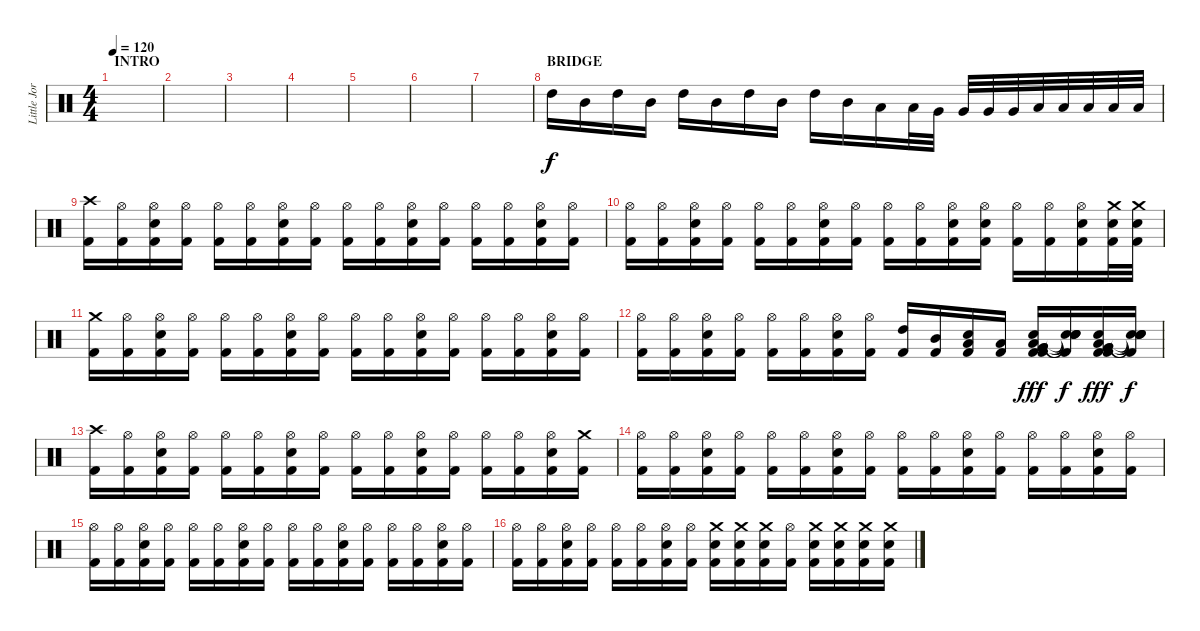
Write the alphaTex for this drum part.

\track ("Little Jordison" "Little Jor") {instrument percussion}
\staff {score}
\articulation defaults
\ts (4 4)
\section ("" "INTRO")
\tempo 120
\clef neutral
\ks c
|
|
|
|
|
|
|
\section ("" "BRIDGE")
"High Tom (hit)".16 "Mid Tom (hit)".16 "High Tom (hit)".16 "Mid Tom (hit)".16 "High Tom (hit)".16 "Mid Tom (hit)".16 "High Tom (hit)".16 "Mid Tom (hit)".16 "High Tom (hit)".16 "Mid Tom (hit)".16 "Low Tom (hit)".16 "Low Tom (hit)".32 "Very Low Tom (hit)".32 "Very Low Tom (hit)".32 "Very Low Tom (hit)".32 "Very Low Tom (hit)".32 "Low Floor Tom (hit)".32 "Low Floor Tom (hit)".32 "Low Floor Tom (hit)".32 "Low Floor Tom (hit)".32 "Low Floor Tom (hit)".32 |
("Crash high (hit)" "Kick (hit) 2").16{dy f} ("Hi-Hat (open)" "Kick (hit) 2").16 ("Hi-Hat (open)" "Electric Snare (hit)" "Kick (hit) 2").16 ("Hi-Hat (open)" "Kick (hit) 2").16 ("Hi-Hat (open)" "Kick (hit) 2").16 ("Hi-Hat (open)" "Kick (hit) 2").16 ("Hi-Hat (open)" "Electric Snare (hit)" "Kick (hit) 2").16 ("Hi-Hat (open)" "Kick (hit) 2").16 ("Hi-Hat (open)" "Kick (hit) 2").16 ("Hi-Hat (open)" "Kick (hit) 2").16 ("Hi-Hat (open)" "Electric Snare (hit)" "Kick (hit) 2").16 ("Hi-Hat (open)" "Kick (hit) 2").16 ("Hi-Hat (open)" "Kick (hit) 2").16 ("Hi-Hat (open)" "Kick (hit) 2").16 ("Hi-Hat (open)" "Electric Snare (hit)" "Kick (hit) 2").16 ("Hi-Hat (open)" "Kick (hit) 2").16 |
("Hi-Hat (open)" "Kick (hit) 2").16 ("Hi-Hat (open)" "Kick (hit) 2").16 ("Hi-Hat (open)" "Electric Snare (hit)" "Kick (hit) 2").16 ("Hi-Hat (open)" "Kick (hit) 2").16 ("Hi-Hat (open)" "Kick (hit) 2").16 ("Hi-Hat (open)" "Kick (hit) 2").16 ("Hi-Hat (open)" "Electric Snare (hit)" "Kick (hit) 2").16 ("Hi-Hat (open)" "Kick (hit) 2").16 ("Hi-Hat (open)" "Kick (hit) 2").16 ("Hi-Hat (open)" "Kick (hit) 2").16 ("Hi-Hat (open)" "Electric Snare (hit)" "Kick (hit) 2").16 ("Hi-Hat (open)" "Electric Snare (hit)" "Kick (hit) 2").16 ("Hi-Hat (open)" "Kick (hit) 2").16 ("Hi-Hat (open)" "Kick (hit) 2").16 ("Hi-Hat (open)" "Electric Snare (hit)" "Kick (hit) 2").16 ("Crash medium (hit)" "Electric Snare (hit)" "Kick (hit) 2").32 ("Crash medium (hit)" "Electric Snare (hit)" "Kick (hit) 2").32 |
("Crash medium (hit)" "Kick (hit) 2").16 ("Hi-Hat (open)" "Kick (hit) 2").16 ("Hi-Hat (open)" "Electric Snare (hit)" "Kick (hit) 2").16 ("Hi-Hat (open)" "Kick (hit) 2").16 ("Hi-Hat (open)" "Kick (hit) 2").16 ("Hi-Hat (open)" "Kick (hit) 2").16 ("Hi-Hat (open)" "Electric Snare (hit)" "Kick (hit) 2").16 ("Hi-Hat (open)" "Kick (hit) 2").16 ("Hi-Hat (open)" "Kick (hit) 2").16 ("Hi-Hat (open)" "Kick (hit) 2").16 ("Hi-Hat (open)" "Electric Snare (hit)" "Kick (hit) 2").16 ("Hi-Hat (open)" "Kick (hit) 2").16 ("Hi-Hat (open)" "Kick (hit) 2").16 ("Hi-Hat (open)" "Kick (hit) 2").16 ("Hi-Hat (open)" "Electric Snare (hit)" "Kick (hit) 2").16 ("Hi-Hat (open)" "Kick (hit) 2").16 |
("Hi-Hat (open)" "Kick (hit) 2").16 ("Hi-Hat (open)" "Kick (hit) 2").16 ("Hi-Hat (open)" "Electric Snare (hit)" "Kick (hit) 2").16 ("Hi-Hat (open)" "Kick (hit) 2").16 ("Hi-Hat (open)" "Kick (hit) 2").16 ("Hi-Hat (open)" "Kick (hit) 2").16 ("Hi-Hat (open)" "Electric Snare (hit)" "Kick (hit) 2").16 ("Hi-Hat (open)" "Kick (hit) 2").16 ("High Tom (hit)" "Kick (hit) 2").16 ("Mid Tom (hit)" "Kick (hit) 2").16 ("Low Tom (hit)" "Electric Snare (hit)" "Kick (hit) 2").16 ("Low Tom (hit)" "Kick (hit) 2").16 ("Kick (hit) 2" "Very Low Tom (hit)" "Low Tom (hit)" "Very Low Tom (hit)" "Electric Snare (hit)" "Kick (hit) 2").16{dy fff} ("Snare (hit)"{t} "Snare (hit)"{t} "Snare (hit)"{t} "Snare (hit)"{t} "Kick (hit) 2"{t}).16{dy f} ("Kick (hit) 2" "Very Low Tom (hit)" "Low Tom (hit)" "Very Low Tom (hit)" "Electric Snare (hit)" "Kick (hit) 2").16{dy fff} ("Snare (hit)"{t} "Snare (hit)"{t} "Snare (hit)"{t} "Snare (hit)"{t} "Kick (hit) 2"{t}).16{dy f} |
("Crash high (hit)" "Kick (hit) 2").16 ("Hi-Hat (open)" "Kick (hit) 2").16 ("Hi-Hat (open)" "Electric Snare (hit)" "Kick (hit) 2").16 ("Hi-Hat (open)" "Kick (hit) 2").16 ("Hi-Hat (open)" "Kick (hit) 2").16 ("Hi-Hat (open)" "Kick (hit) 2").16 ("Hi-Hat (open)" "Electric Snare (hit)" "Kick (hit) 2").16 ("Hi-Hat (open)" "Kick (hit) 2").16 ("Hi-Hat (open)" "Kick (hit) 2").16 ("Hi-Hat (open)" "Kick (hit) 2").16 ("Hi-Hat (open)" "Electric Snare (hit)" "Kick (hit) 2").16 ("Hi-Hat (open)" "Kick (hit) 2").16 ("Hi-Hat (open)" "Kick (hit) 2").16 ("Hi-Hat (open)" "Kick (hit) 2").16 ("Hi-Hat (open)" "Electric Snare (hit)" "Kick (hit) 2").16 ("Crash medium (hit)" "Kick (hit) 2").16 |
("Hi-Hat (open)" "Kick (hit) 2").16 ("Hi-Hat (open)" "Kick (hit) 2").16 ("Hi-Hat (open)" "Electric Snare (hit)" "Kick (hit) 2").16 ("Hi-Hat (open)" "Kick (hit) 2").16 ("Hi-Hat (open)" "Kick (hit) 2").16 ("Hi-Hat (open)" "Kick (hit) 2").16 ("Hi-Hat (open)" "Electric Snare (hit)" "Kick (hit) 2").16 ("Hi-Hat (open)" "Kick (hit) 2").16 ("Hi-Hat (open)" "Kick (hit) 2").16 ("Hi-Hat (open)" "Kick (hit) 2").16 ("Hi-Hat (open)" "Electric Snare (hit)" "Kick (hit) 2").16 ("Hi-Hat (open)" "Kick (hit) 2").16 ("Hi-Hat (open)" "Kick (hit) 2").16 ("Hi-Hat (open)" "Kick (hit) 2").16 ("Hi-Hat (open)" "Electric Snare (hit)" "Kick (hit) 2").16 ("Hi-Hat (open)" "Kick (hit) 2").16 |
("Hi-Hat (open)" "Kick (hit) 2").16 ("Hi-Hat (open)" "Kick (hit) 2").16 ("Hi-Hat (open)" "Electric Snare (hit)" "Kick (hit) 2").16 ("Hi-Hat (open)" "Kick (hit) 2").16 ("Hi-Hat (open)" "Kick (hit) 2").16 ("Hi-Hat (open)" "Kick (hit) 2").16 ("Hi-Hat (open)" "Electric Snare (hit)" "Kick (hit) 2").16 ("Hi-Hat (open)" "Kick (hit) 2").16 ("Hi-Hat (open)" "Kick (hit) 2").16 ("Hi-Hat (open)" "Kick (hit) 2").16 ("Hi-Hat (open)" "Electric Snare (hit)" "Kick (hit) 2").16 ("Hi-Hat (open)" "Kick (hit) 2").16 ("Hi-Hat (open)" "Kick (hit) 2").16 ("Hi-Hat (open)" "Kick (hit) 2").16 ("Hi-Hat (open)" "Electric Snare (hit)" "Kick (hit) 2").16 ("Hi-Hat (open)" "Kick (hit) 2").16 |
("Hi-Hat (open)" "Kick (hit) 2").16 ("Hi-Hat (open)" "Kick (hit) 2").16 ("Hi-Hat (open)" "Electric Snare (hit)" "Kick (hit) 2").16 ("Hi-Hat (open)" "Kick (hit) 2").16 ("Hi-Hat (open)" "Kick (hit) 2").16 ("Hi-Hat (open)" "Kick (hit) 2").16 ("Hi-Hat (open)" "Electric Snare (hit)" "Kick (hit) 2").16 ("Hi-Hat (open)" "Kick (hit) 2").16 ("Crash medium (hit)" "Electric Snare (hit)" "Kick (hit) 2").16 ("Crash medium (hit)" "Electric Snare (hit)" "Kick (hit) 2").16 ("Crash medium (hit)" "Electric Snare (hit)" "Kick (hit) 2").16 ("Hi-Hat (open)" "Kick (hit) 2").16 ("Crash medium (hit)" "Electric Snare (hit)" "Kick (hit) 2").16 ("Crash medium (hit)" "Electric Snare (hit)" "Kick (hit) 2").16 ("Crash medium (hit)" "Electric Snare (hit)" "Kick (hit) 2").16 ("Crash medium (hit)" "Electric Snare (hit)" "Kick (hit) 2").16
